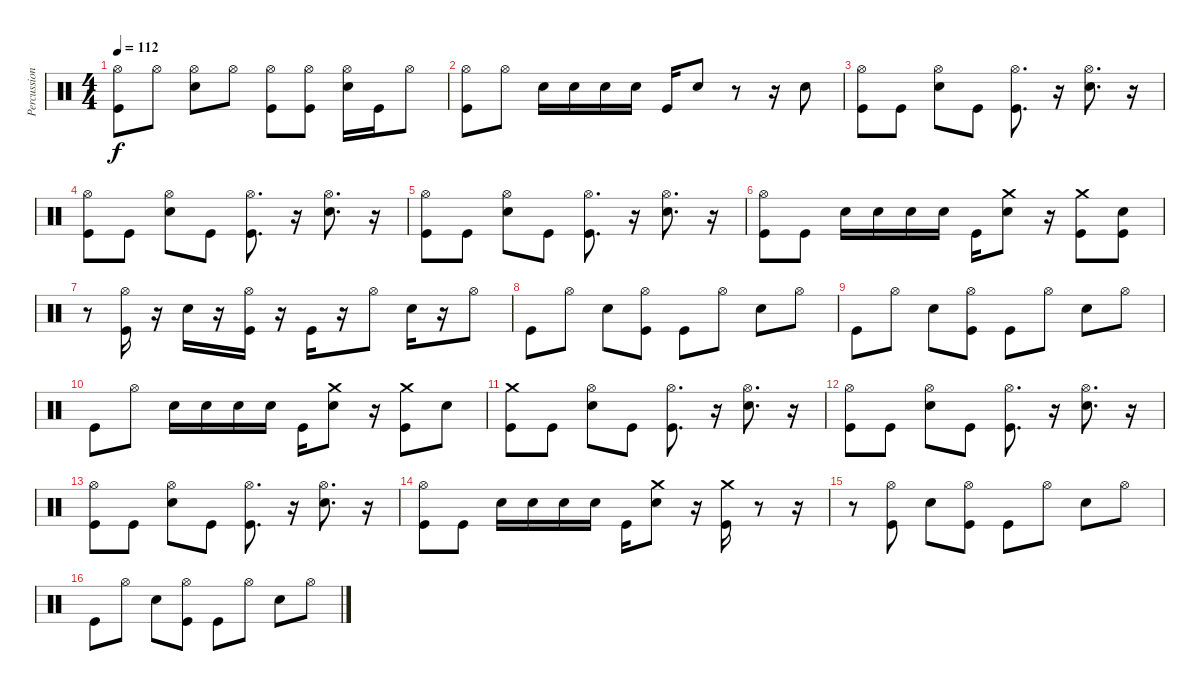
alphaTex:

\track ("Percussion" "Percussion") {instrument percussion}
\staff {score}
\articulation defaults
\ts (4 4)
\tempo 112
\clef neutral
\ks c
("Hi-Hat (open)" "Kick (hit)").8{dy f} "Hi-Hat (open)".8 ("Hi-Hat (open)" "Electric Snare (hit)").8 "Hi-Hat (open)".8 ("Hi-Hat (open)" "Kick (hit)").8 ("Hi-Hat (open)" "Kick (hit)").8 ("Hi-Hat (open)" "Electric Snare (hit)").16 "Kick (hit)".16 "Hi-Hat (open)".8 |
("Hi-Hat (open)" "Kick (hit)").8 "Hi-Hat (open)".8 "Electric Snare (hit)".16 "Electric Snare (hit)".16 "Electric Snare (hit)".16 "Electric Snare (hit)".16 "Kick (hit)".16 "Electric Snare (hit)".8 r.8 r.16 "Electric Snare (hit)".8 |
("Hi-Hat (open)" "Kick (hit)").8 "Kick (hit)".8 ("Hi-Hat (open)" "Electric Snare (hit)").8 "Kick (hit)".8 ("Hi-Hat (open)" "Kick (hit)").8{d} r.16 ("Hi-Hat (open)" "Electric Snare (hit)").8{d} r.16 |
("Hi-Hat (open)" "Kick (hit)").8 "Kick (hit)".8 ("Hi-Hat (open)" "Electric Snare (hit)").8 "Kick (hit)".8 ("Hi-Hat (open)" "Kick (hit)").8{d} r.16 ("Hi-Hat (open)" "Electric Snare (hit)").8{d} r.16 |
("Hi-Hat (open)" "Kick (hit)").8 "Kick (hit)".8 ("Hi-Hat (open)" "Electric Snare (hit)").8 "Kick (hit)".8 ("Hi-Hat (open)" "Kick (hit)").8{d} r.16 ("Hi-Hat (open)" "Electric Snare (hit)").8{d} r.16 |
("Hi-Hat (open)" "Kick (hit)").8 "Kick (hit)".8 "Electric Snare (hit)".16 "Electric Snare (hit)".16 "Electric Snare (hit)".16 "Electric Snare (hit)".16 "Kick (hit)".16 ("Electric Snare (hit)" "Crash medium (hit)").8 r.16 ("Kick (hit)" "Crash medium (hit)").8 ("Electric Snare (hit)" "Kick (hit)").8 |
r.8 ("Hi-Hat (open)" "Kick (hit)").16 r.16 "Electric Snare (hit)".16 r.16 ("Hi-Hat (open)" "Kick (hit)").16 r.16 "Kick (hit)".16 r.16 "Hi-Hat (open)".8 "Electric Snare (hit)".16 r.16 "Hi-Hat (open)".8 |
"Kick (hit)".8 "Hi-Hat (open)".8 "Electric Snare (hit)".8 ("Hi-Hat (open)" "Kick (hit)").8 "Kick (hit)".8 "Hi-Hat (open)".8 "Electric Snare (hit)".8 "Hi-Hat (open)".8 |
"Kick (hit)".8 "Hi-Hat (open)".8 "Electric Snare (hit)".8 ("Hi-Hat (open)" "Kick (hit)").8 "Kick (hit)".8 "Hi-Hat (open)".8 "Electric Snare (hit)".8 "Hi-Hat (open)".8 |
"Kick (hit)".8 "Hi-Hat (open)".8 "Electric Snare (hit)".16 "Electric Snare (hit)".16 "Electric Snare (hit)".16 "Electric Snare (hit)".16 "Kick (hit)".16 ("Electric Snare (hit)" "Crash medium (hit)").8 r.16 ("Kick (hit)" "Crash medium (hit)").8 "Electric Snare (hit)".8 |
("Kick (hit)" "Crash medium (hit)").8 "Kick (hit)".8 ("Hi-Hat (open)" "Electric Snare (hit)").8 "Kick (hit)".8 ("Hi-Hat (open)" "Kick (hit)").8{d} r.16 ("Hi-Hat (open)" "Electric Snare (hit)").8{d} r.16 |
("Hi-Hat (open)" "Kick (hit)").8 "Kick (hit)".8 ("Hi-Hat (open)" "Electric Snare (hit)").8 "Kick (hit)".8 ("Hi-Hat (open)" "Kick (hit)").8{d} r.16 ("Hi-Hat (open)" "Electric Snare (hit)").8{d} r.16 |
("Hi-Hat (open)" "Kick (hit)").8 "Kick (hit)".8 ("Hi-Hat (open)" "Electric Snare (hit)").8 "Kick (hit)".8 ("Hi-Hat (open)" "Kick (hit)").8{d} r.16 ("Hi-Hat (open)" "Electric Snare (hit)").8{d} r.16 |
("Hi-Hat (open)" "Kick (hit)").8 "Kick (hit)".8 "Electric Snare (hit)".16 "Electric Snare (hit)".16 "Electric Snare (hit)".16 "Electric Snare (hit)".16 "Kick (hit)".16 ("Electric Snare (hit)" "Crash medium (hit)").8 r.16 ("Kick (hit)" "Crash medium (hit)").16 r.8 r.16 |
r.8 ("Hi-Hat (open)" "Kick (hit)").8 "Electric Snare (hit)".8 ("Hi-Hat (open)" "Kick (hit)").8 "Kick (hit)".8 "Hi-Hat (open)".8 "Electric Snare (hit)".8 "Hi-Hat (open)".8 |
"Kick (hit)".8 "Hi-Hat (open)".8 "Electric Snare (hit)".8 ("Hi-Hat (open)" "Kick (hit)").8 "Kick (hit)".8 "Hi-Hat (open)".8 "Electric Snare (hit)".8 "Hi-Hat (open)".8
